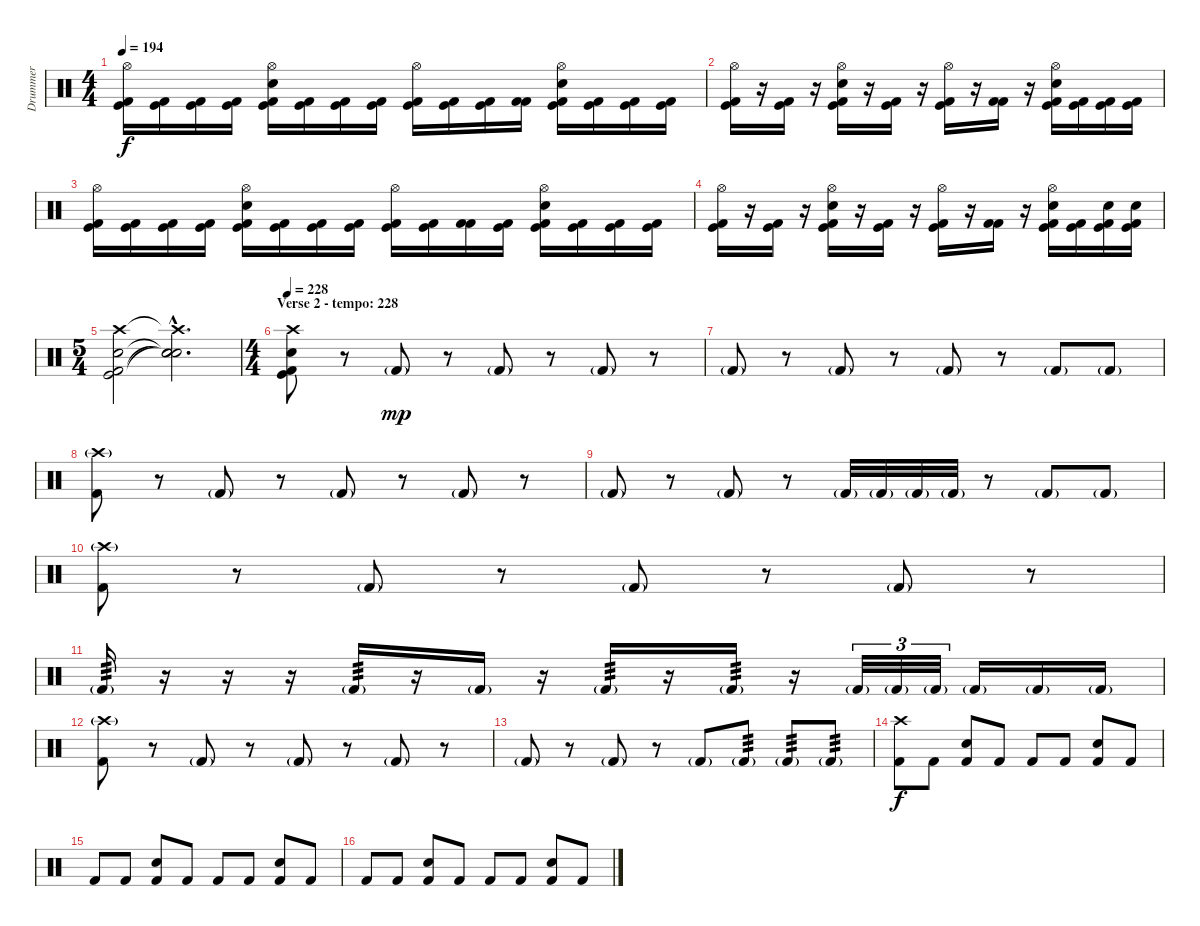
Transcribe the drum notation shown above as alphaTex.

\track ("Drummer" "Drummer") {instrument percussion}
\staff {score}
\articulation defaults
\ts (4 4)
\tempo 194
\clef neutral
\ks c
("Hi-Hat (open)" "Kick (hit)" "Kick (hit) 2").16{dy f} ("Kick (hit)" "Kick (hit) 2").16 ("Kick (hit)" "Kick (hit) 2").16 ("Kick (hit)" "Kick (hit) 2").16 ("Hi-Hat (open)" "Snare (hit) 2" "Kick (hit)" "Kick (hit) 2").16 ("Kick (hit)" "Kick (hit) 2").16 ("Kick (hit)" "Kick (hit) 2").16 ("Kick (hit)" "Kick (hit) 2").16 ("Hi-Hat (open)" "Kick (hit)" "Kick (hit) 2").16 ("Kick (hit)" "Kick (hit) 2").16 ("Kick (hit)" "Kick (hit) 2").16 ("Kick (hit) 2" "Kick (hit) 2").16 ("Hi-Hat (open)" "Snare (hit) 2" "Kick (hit)" "Kick (hit) 2").16 ("Kick (hit)" "Kick (hit) 2").16 ("Kick (hit)" "Kick (hit) 2").16 ("Kick (hit)" "Kick (hit) 2").16 |
("Hi-Hat (open)" "Kick (hit)" "Kick (hit) 2").16 r.16 ("Kick (hit)" "Kick (hit) 2").16 r.16 ("Hi-Hat (open)" "Snare (hit) 2" "Kick (hit)" "Kick (hit) 2").16 r.16 ("Kick (hit)" "Kick (hit) 2").16 r.16 ("Hi-Hat (open)" "Kick (hit)" "Kick (hit) 2").16 r.16 ("Kick (hit) 2" "Kick (hit) 2").16 r.16 ("Hi-Hat (open)" "Snare (hit) 2" "Kick (hit)" "Kick (hit) 2").16 ("Kick (hit)" "Kick (hit) 2").16 ("Kick (hit)" "Kick (hit) 2").16 ("Kick (hit)" "Kick (hit) 2").16 |
("Hi-Hat (open)" "Kick (hit)" "Kick (hit) 2").16 ("Kick (hit)" "Kick (hit) 2").16 ("Kick (hit)" "Kick (hit) 2").16 ("Kick (hit)" "Kick (hit) 2").16 ("Hi-Hat (open)" "Snare (hit) 2" "Kick (hit)" "Kick (hit) 2").16 ("Kick (hit)" "Kick (hit) 2").16 ("Kick (hit)" "Kick (hit) 2").16 ("Kick (hit)" "Kick (hit) 2").16 ("Hi-Hat (open)" "Kick (hit)" "Kick (hit) 2").16 ("Kick (hit)" "Kick (hit) 2").16 ("Kick (hit) 2" "Kick (hit) 2").16 ("Kick (hit)" "Kick (hit) 2").16 ("Hi-Hat (open)" "Snare (hit) 2" "Kick (hit)" "Kick (hit) 2").16 ("Kick (hit)" "Kick (hit) 2").16 ("Kick (hit)" "Kick (hit) 2").16 ("Kick (hit)" "Kick (hit) 2").16 |
("Hi-Hat (open)" "Kick (hit)" "Kick (hit) 2").16 r.16 ("Kick (hit)" "Kick (hit) 2").16 r.16 ("Hi-Hat (open)" "Snare (hit) 2" "Kick (hit)" "Kick (hit) 2").16 r.16 ("Kick (hit)" "Kick (hit) 2").16 r.16 ("Hi-Hat (open)" "Kick (hit)" "Kick (hit) 2").16 r.16 ("Kick (hit) 2" "Kick (hit) 2").16 r.16 ("Hi-Hat (open)" "Snare (hit) 2" "Kick (hit)" "Kick (hit) 2").16 ("Kick (hit)" "Kick (hit) 2").16 ("Snare (hit) 2" "Kick (hit)" "Kick (hit) 2").16 ("Snare (hit) 2" "Kick (hit)" "Kick (hit) 2").16 |
\ts (5 4)
("Snare (hit) 2" "Kick (hit)" "Kick (hit) 2" "Crash high (hit)").2 ("Snare (hit)"{hac t} "Snare (hit)"{hac t} "Snare (hit)"{hac t} "Crash high (hit)"{hac t}).2{d} |
\ts (4 4)
\section ("" "Verse 2 - tempo: 228")
\tempo 228
("Snare (hit) 2" "Kick (hit)" "Crash high (hit)" "Kick (hit) 2").8 r.8 "Kick (hit) 2"{g}.8{dy mp} r.8 "Kick (hit) 2"{g}.8 r.8 "Kick (hit) 2"{g}.8 r.8 |
"Kick (hit) 2"{g}.8 r.8 "Kick (hit) 2"{g}.8 r.8 "Kick (hit) 2"{g}.8 r.8 "Kick (hit) 2"{g}.8 "Kick (hit) 2"{g}.8 |
("Crash high (hit)"{g} "Kick (hit) 2").8 r.8 "Kick (hit) 2"{g}.8 r.8 "Kick (hit) 2"{g}.8 r.8 "Kick (hit) 2"{g}.8 r.8 |
"Kick (hit) 2"{g}.8 r.8 "Kick (hit) 2"{g}.8 r.8 "Kick (hit) 2"{g}.32 "Kick (hit) 2"{g}.32 "Kick (hit) 2"{g}.32 "Kick (hit) 2"{g}.32 r.8 "Kick (hit) 2"{g}.8 "Kick (hit) 2"{g}.8 |
("Crash high (hit)"{g} "Kick (hit) 2").8 r.8 "Kick (hit) 2"{g}.8 r.8 "Kick (hit) 2"{g}.8 r.8 "Kick (hit) 2"{g}.8 r.8 |
"Kick (hit) 2"{g}.16{tp 3} r.16 r.16 r.16 "Kick (hit) 2"{g}.16{tp 3} r.16 "Kick (hit) 2"{g}.16 r.16 "Kick (hit) 2"{g}.16{tp 3} r.16 "Kick (hit) 2"{g}.16{tp 3} r.16 "Kick (hit) 2"{g}.32{tu (3 2)} "Kick (hit) 2"{g}.32{tu (3 2)} "Kick (hit) 2"{g}.32{tu (3 2)} "Kick (hit) 2"{g}.16 "Kick (hit) 2"{g}.16 "Kick (hit) 2"{g}.16 |
("Crash high (hit)"{g} "Kick (hit) 2").8 r.8 "Kick (hit) 2"{g}.8 r.8 "Kick (hit) 2"{g}.8 r.8 "Kick (hit) 2"{g}.8 r.8 |
"Kick (hit) 2"{g}.8 r.8 "Kick (hit) 2"{g}.8 r.8 "Kick (hit) 2"{g}.8 "Kick (hit) 2"{g}.8{tp 3} "Kick (hit) 2"{g}.8{tp 3} "Kick (hit) 2"{g}.8{tp 3} |
("Crash high (hit)" "Kick (hit) 2").8{dy f} "Kick (hit) 2".8 ("Snare (hit) 2" "Kick (hit) 2").8 "Kick (hit) 2".8 "Kick (hit) 2".8 "Kick (hit) 2".8 ("Snare (hit) 2" "Kick (hit) 2").8 "Kick (hit) 2".8 |
"Kick (hit) 2".8 "Kick (hit) 2".8 ("Snare (hit) 2" "Kick (hit) 2").8 "Kick (hit) 2".8 "Kick (hit) 2".8 "Kick (hit) 2".8 ("Snare (hit) 2" "Kick (hit) 2").8 "Kick (hit) 2".8 |
"Kick (hit) 2".8 "Kick (hit) 2".8 ("Snare (hit) 2" "Kick (hit) 2").8 "Kick (hit) 2".8 "Kick (hit) 2".8 "Kick (hit) 2".8 ("Snare (hit) 2" "Kick (hit) 2").8 "Kick (hit) 2".8
